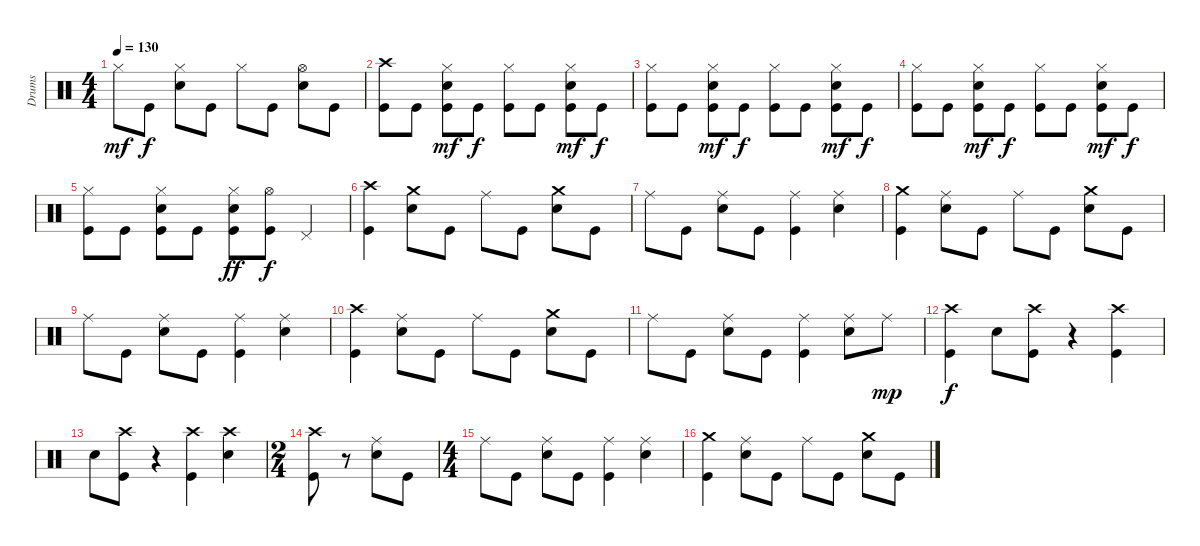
\track ("Drums" "Drums") {instrument percussion}
\staff {score}
\articulation defaults
\ts (4 4)
\tempo 130
\clef neutral
\ks c "Hi-Hat (closed)".8{dy mf} "Kick (hit)".8{dy f}
("Hi-Hat (closed)" "Snare (hit) 2").8 "Kick (hit)".8 "Hi-Hat (closed)".8 "Kick (hit)".8 ("Hi-Hat (open)" "Snare (hit) 2").8 "Kick (hit)".8 |
("Crash high (hit)" "Kick (hit)").8 "Kick (hit)".8 ("Hi-Hat (closed)" "Snare (hit) 2" "Kick (hit)").8{dy mf} "Kick (hit)".8{dy f} ("Hi-Hat (closed)" "Kick (hit)").8 "Kick (hit)".8 ("Hi-Hat (closed)" "Snare (hit) 2" "Kick (hit)").8{dy mf} "Kick (hit)".8{dy f} |
("Hi-Hat (closed)" "Kick (hit)").8 "Kick (hit)".8 ("Hi-Hat (closed)" "Snare (hit) 2" "Kick (hit)").8{dy mf} "Kick (hit)".8{dy f} ("Hi-Hat (closed)" "Kick (hit)").8 "Kick (hit)".8 ("Hi-Hat (closed)" "Snare (hit) 2" "Kick (hit)").8{dy mf} "Kick (hit)".8{dy f} |
("Hi-Hat (closed)" "Kick (hit)").8 "Kick (hit)".8 ("Hi-Hat (closed)" "Snare (hit) 2" "Kick (hit)").8{dy mf} "Kick (hit)".8{dy f} ("Hi-Hat (closed)" "Kick (hit)").8 "Kick (hit)".8 ("Hi-Hat (closed)" "Snare (hit) 2" "Kick (hit)").8{dy mf} "Kick (hit)".8{dy f} |
("Hi-Hat (closed)" "Kick (hit)").8 "Kick (hit)".8 ("Hi-Hat (closed)" "Snare (hit) 2" "Kick (hit)").8 "Kick (hit)".8 ("Hi-Hat (closed)" "Snare (hit) 2" "Kick (hit)").8{dy ff} ("Hi-Hat (open)" "Kick (hit)").8{dy f} "Pedal Hi-Hat (hit)".4 |
("Crash high (hit)" "Kick (hit)").4 ("Crash medium (hit)" "Snare (hit) 2").8 "Kick (hit)".8 "Ride (middle)".8 "Kick (hit)".8 ("Crash medium (hit)" "Snare (hit) 2").8 "Kick (hit)".8 |
"Ride (middle)".8 "Kick (hit)".8 ("Ride (middle)" "Snare (hit) 2").8 "Kick (hit)".8 ("Ride (middle)" "Kick (hit)").4 ("Ride (middle)" "Snare (hit) 2").4 |
("Crash medium (hit)" "Kick (hit)").4 ("Ride (middle)" "Snare (hit) 2").8 "Kick (hit)".8 "Ride (middle)".8 "Kick (hit)".8 ("Crash medium (hit)" "Snare (hit) 2").8 "Kick (hit)".8 |
"Ride (middle)".8 "Kick (hit)".8 ("Ride (middle)" "Snare (hit) 2").8 "Kick (hit)".8 ("Ride (middle)" "Kick (hit)").4 ("Ride (middle)" "Snare (hit) 2").4 |
("Crash high (hit)" "Kick (hit)").4 ("Ride (middle)" "Snare (hit) 2").8 "Kick (hit)".8 "Ride (middle)".8 "Kick (hit)".8 ("Crash medium (hit)" "Snare (hit) 2").8 "Kick (hit)".8 |
"Ride (middle)".8 "Kick (hit)".8 ("Ride (middle)" "Snare (hit) 2").8 "Kick (hit)".8 ("Ride (middle)" "Kick (hit)").4 ("Ride (middle)" "Snare (hit) 2").8 "Ride (middle)".8{dy mp} |
("Crash high (hit)" "Kick (hit)").4{dy f} "Snare (hit) 2".8 ("Crash high (hit)" "Kick (hit)").8 r.4 ("Crash high (hit)" "Kick (hit)").4 |
"Snare (hit) 2".8 ("Crash high (hit)" "Kick (hit)").8 r.4 ("Crash high (hit)" "Kick (hit)").4 ("Crash high (hit)" "Snare (hit) 2").4 |
\ts (2 4)
("Crash high (hit)" "Kick (hit)").8 r.8 ("Ride (middle)" "Snare (hit) 2").8 "Kick (hit)".8 |
\ts (4 4)
"Ride (middle)".8 "Kick (hit)".8 ("Ride (middle)" "Snare (hit) 2").8 "Kick (hit)".8 ("Ride (middle)" "Kick (hit)").4 ("Ride (middle)" "Snare (hit) 2").4 |
("Crash medium (hit)" "Kick (hit)").4 ("Ride (middle)" "Snare (hit) 2").8 "Kick (hit)".8 "Ride (middle)".8 "Kick (hit)".8 ("Crash medium (hit)" "Snare (hit) 2").8 "Kick (hit)".8
